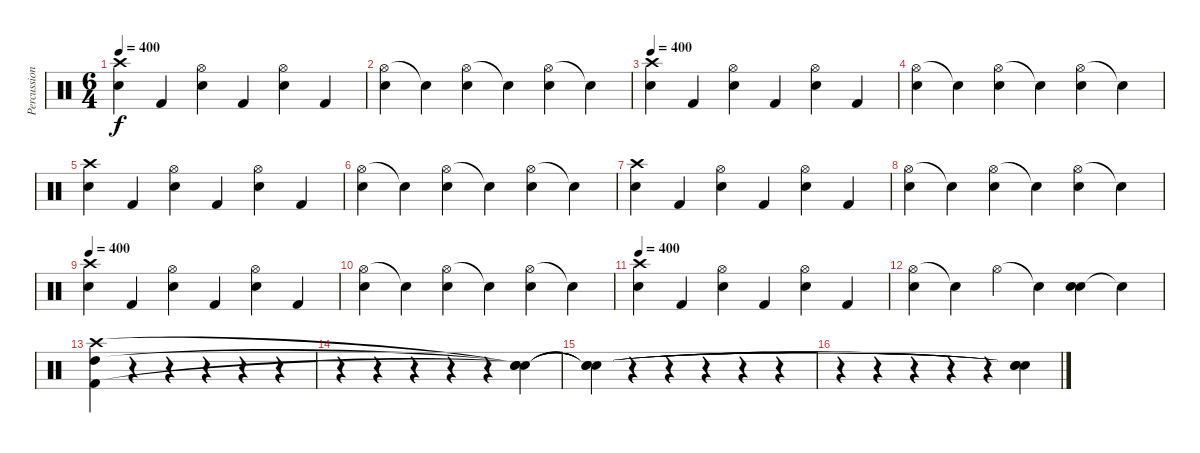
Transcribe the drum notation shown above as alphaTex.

\track ("Percussion" "Percussion") {instrument percussion}
\staff {score}
\articulation defaults
\ts (6 4)
\tempo 400
\clef neutral
\ks c
("Crash high (hit)" "Snare (hit) 2").4{dy f} "Kick (hit) 2".4 ("Hi-Hat (open)" "Snare (hit) 2").4 "Kick (hit) 2".4 ("Hi-Hat (open)" "Snare (hit) 2").4 "Kick (hit) 2".4 |
("Hi-Hat (open)" "Snare (hit) 2").4 "Snare (hit)"{t}.4 ("Hi-Hat (open)" "Snare (hit) 2").4 "Snare (hit)"{t}.4 ("Hi-Hat (open)" "Snare (hit) 2").4 "Snare (hit)"{t}.4 |
\tempo 400
("Crash high (hit)" "Snare (hit) 2").4 "Kick (hit) 2".4 ("Hi-Hat (open)" "Snare (hit) 2").4 "Kick (hit) 2".4 ("Hi-Hat (open)" "Snare (hit) 2").4 "Kick (hit) 2".4 |
("Hi-Hat (open)" "Snare (hit) 2").4 "Snare (hit)"{t}.4 ("Hi-Hat (open)" "Snare (hit) 2").4 "Snare (hit)"{t}.4 ("Hi-Hat (open)" "Snare (hit) 2").4 "Snare (hit)"{t}.4 |
("Crash high (hit)" "Snare (hit) 2").4 "Kick (hit) 2".4 ("Hi-Hat (open)" "Snare (hit) 2").4 "Kick (hit) 2".4 ("Hi-Hat (open)" "Snare (hit) 2").4 "Kick (hit) 2".4 |
("Hi-Hat (open)" "Snare (hit) 2").4 "Snare (hit)"{t}.4 ("Hi-Hat (open)" "Snare (hit) 2").4 "Snare (hit)"{t}.4 ("Hi-Hat (open)" "Snare (hit) 2").4 "Snare (hit)"{t}.4 |
("Crash high (hit)" "Snare (hit) 2").4 "Kick (hit) 2".4 ("Hi-Hat (open)" "Snare (hit) 2").4 "Kick (hit) 2".4 ("Hi-Hat (open)" "Snare (hit) 2").4 "Kick (hit) 2".4 |
("Hi-Hat (open)" "Snare (hit) 2").4 "Snare (hit)"{t}.4 ("Hi-Hat (open)" "Snare (hit) 2").4 "Snare (hit)"{t}.4 ("Hi-Hat (open)" "Snare (hit) 2").4 "Snare (hit)"{t}.4 |
\tempo 400
("Crash high (hit)" "Snare (hit) 2").4 "Kick (hit) 2".4 ("Hi-Hat (open)" "Snare (hit) 2").4 "Kick (hit) 2".4 ("Hi-Hat (open)" "Snare (hit) 2").4 "Kick (hit) 2".4 |
("Hi-Hat (open)" "Snare (hit) 2").4 "Snare (hit)"{t}.4 ("Hi-Hat (open)" "Snare (hit) 2").4 "Snare (hit)"{t}.4 ("Hi-Hat (open)" "Snare (hit) 2").4 "Snare (hit)"{t}.4 |
\tempo 400
("Crash high (hit)" "Snare (hit) 2").4 "Kick (hit) 2".4 ("Hi-Hat (open)" "Snare (hit) 2").4 "Kick (hit) 2".4 ("Hi-Hat (open)" "Snare (hit) 2").4 "Kick (hit) 2".4 |
("Hi-Hat (open)" "Snare (hit) 2").4 "Snare (hit)"{t}.4 "Hi-Hat (open)".4 "Snare (hit)"{t}.4 ("Snare (hit) 2" "Snare (hit) 2").4 "Snare (hit)"{t}.4 |
("Crash high (hit)" "High Tom (hit)" "Kick (hit) 2").4 r.4 r.4 r.4 r.4 r.4 |
r.4 r.4 r.4 r.4 r.4 ("Snare (hit)"{t} "Snare (hit)"{t} "Snare (hit)"{t}).4 |
("Snare (hit)"{t} "Snare (hit)"{t} "Snare (hit)"{t}).4 r.4 r.4 r.4 r.4 r.4 |
r.4 r.4 r.4 r.4 r.4 ("Snare (hit)"{t} "Snare (hit)"{t} "Snare (hit)"{t}).4
